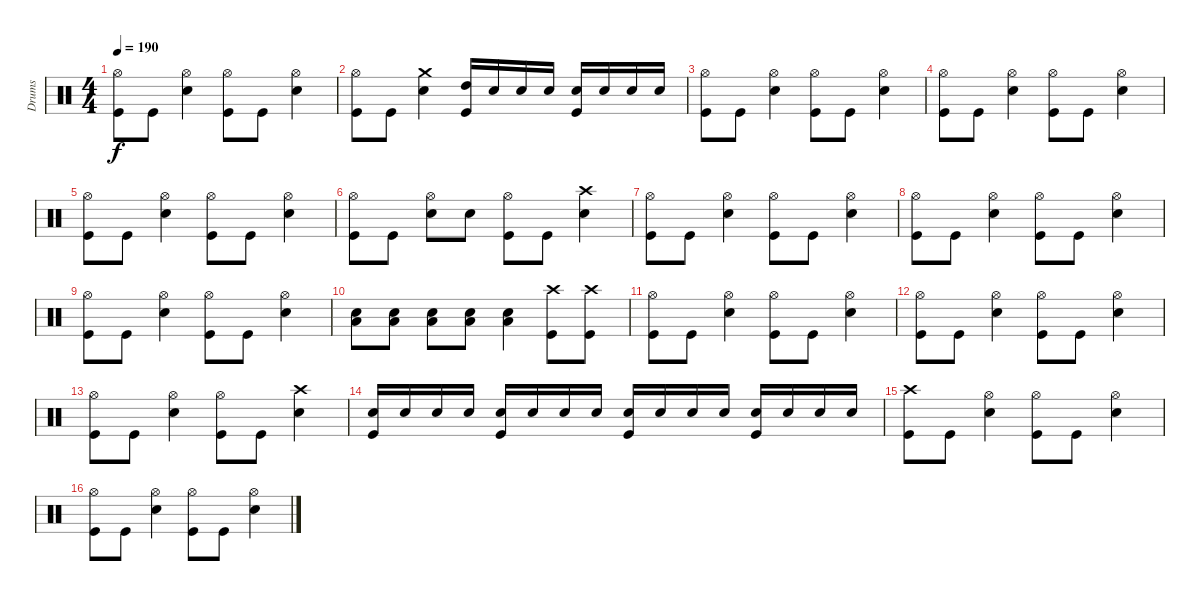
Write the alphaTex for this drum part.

\track ("Drums" "Drums") {instrument percussion}
\staff {score}
\articulation defaults
\ts (4 4)
\tempo 190
\clef neutral
\ks c
("Kick (hit)" "Hi-Hat (open)").8{dy f} "Kick (hit)".8 ("Electric Snare (hit)" "Hi-Hat (open)").4 ("Kick (hit)" "Hi-Hat (open)").8 "Kick (hit)".8 ("Electric Snare (hit)" "Hi-Hat (open)").4 |
("Kick (hit)" "Hi-Hat (open)").8 "Kick (hit)".8 ("Electric Snare (hit)" "Crash medium (hit)").4 ("Kick (hit)" "High Tom (hit)").16 "Electric Snare (hit)".16 "Electric Snare (hit)".16 "Electric Snare (hit)".16 ("Kick (hit)" "Electric Snare (hit)").16 "Electric Snare (hit)".16 "Electric Snare (hit)".16 "Electric Snare (hit)".16 |
("Kick (hit)" "Hi-Hat (open)").8 "Kick (hit)".8 ("Electric Snare (hit)" "Hi-Hat (open)").4 ("Kick (hit)" "Hi-Hat (open)").8 "Kick (hit)".8 ("Electric Snare (hit)" "Hi-Hat (open)").4 |
("Kick (hit)" "Hi-Hat (open)").8 "Kick (hit)".8 ("Electric Snare (hit)" "Hi-Hat (open)").4 ("Kick (hit)" "Hi-Hat (open)").8 "Kick (hit)".8 ("Electric Snare (hit)" "Hi-Hat (open)").4 |
("Kick (hit)" "Hi-Hat (open)").8 "Kick (hit)".8 ("Electric Snare (hit)" "Hi-Hat (open)").4 ("Kick (hit)" "Hi-Hat (open)").8 "Kick (hit)".8 ("Electric Snare (hit)" "Hi-Hat (open)").4 |
("Kick (hit)" "Hi-Hat (open)").8 "Kick (hit)".8 ("Electric Snare (hit)" "Hi-Hat (open)").8 "Electric Snare (hit)".8 ("Kick (hit)" "Hi-Hat (open)").8 "Kick (hit)".8 ("Electric Snare (hit)" "Crash high (hit)").4 |
("Kick (hit)" "Hi-Hat (open)").8 "Kick (hit)".8 ("Electric Snare (hit)" "Hi-Hat (open)").4 ("Kick (hit)" "Hi-Hat (open)").8 "Kick (hit)".8 ("Electric Snare (hit)" "Hi-Hat (open)").4 |
("Kick (hit)" "Hi-Hat (open)").8 "Kick (hit)".8 ("Electric Snare (hit)" "Hi-Hat (open)").4 ("Kick (hit)" "Hi-Hat (open)").8 "Kick (hit)".8 ("Electric Snare (hit)" "Hi-Hat (open)").4 |
("Kick (hit)" "Hi-Hat (open)").8 "Kick (hit)".8 ("Electric Snare (hit)" "Hi-Hat (open)").4 ("Kick (hit)" "Hi-Hat (open)").8 "Kick (hit)".8 ("Electric Snare (hit)" "Hi-Hat (open)").4 |
("Electric Snare (hit)" "Low Tom (hit)").8 ("Electric Snare (hit)" "Low Tom (hit)").8 ("Electric Snare (hit)" "Low Tom (hit)").8 ("Electric Snare (hit)" "Low Tom (hit)").8 ("Electric Snare (hit)" "Low Tom (hit)").4 ("Kick (hit)" "Crash high (hit)").8 ("Kick (hit)" "Crash high (hit)").8 |
("Kick (hit)" "Hi-Hat (open)").8 "Kick (hit)".8 ("Electric Snare (hit)" "Hi-Hat (open)").4 ("Kick (hit)" "Hi-Hat (open)").8 "Kick (hit)".8 ("Electric Snare (hit)" "Hi-Hat (open)").4 |
("Kick (hit)" "Hi-Hat (open)").8 "Kick (hit)".8 ("Electric Snare (hit)" "Hi-Hat (open)").4 ("Kick (hit)" "Hi-Hat (open)").8 "Kick (hit)".8 ("Electric Snare (hit)" "Hi-Hat (open)").4 |
("Kick (hit)" "Hi-Hat (open)").8 "Kick (hit)".8 ("Electric Snare (hit)" "Hi-Hat (open)").4 ("Kick (hit)" "Hi-Hat (open)").8 "Kick (hit)".8 ("Electric Snare (hit)" "Crash high (hit)").4 |
("Kick (hit)" "Electric Snare (hit)").16 "Electric Snare (hit)".16 "Electric Snare (hit)".16 "Electric Snare (hit)".16 ("Kick (hit)" "Electric Snare (hit)").16 "Electric Snare (hit)".16 "Electric Snare (hit)".16 "Electric Snare (hit)".16 ("Kick (hit)" "Electric Snare (hit)").16 "Electric Snare (hit)".16 "Electric Snare (hit)".16 "Electric Snare (hit)".16 ("Kick (hit)" "Electric Snare (hit)").16 "Electric Snare (hit)".16 "Electric Snare (hit)".16 "Electric Snare (hit)".16 |
("Kick (hit)" "Crash high (hit)").8 "Kick (hit)".8 ("Electric Snare (hit)" "Hi-Hat (open)").4 ("Kick (hit)" "Hi-Hat (open)").8 "Kick (hit)".8 ("Electric Snare (hit)" "Hi-Hat (open)").4 |
("Kick (hit)" "Hi-Hat (open)").8 "Kick (hit)".8 ("Electric Snare (hit)" "Hi-Hat (open)").4 ("Kick (hit)" "Hi-Hat (open)").8 "Kick (hit)".8 ("Electric Snare (hit)" "Hi-Hat (open)").4
